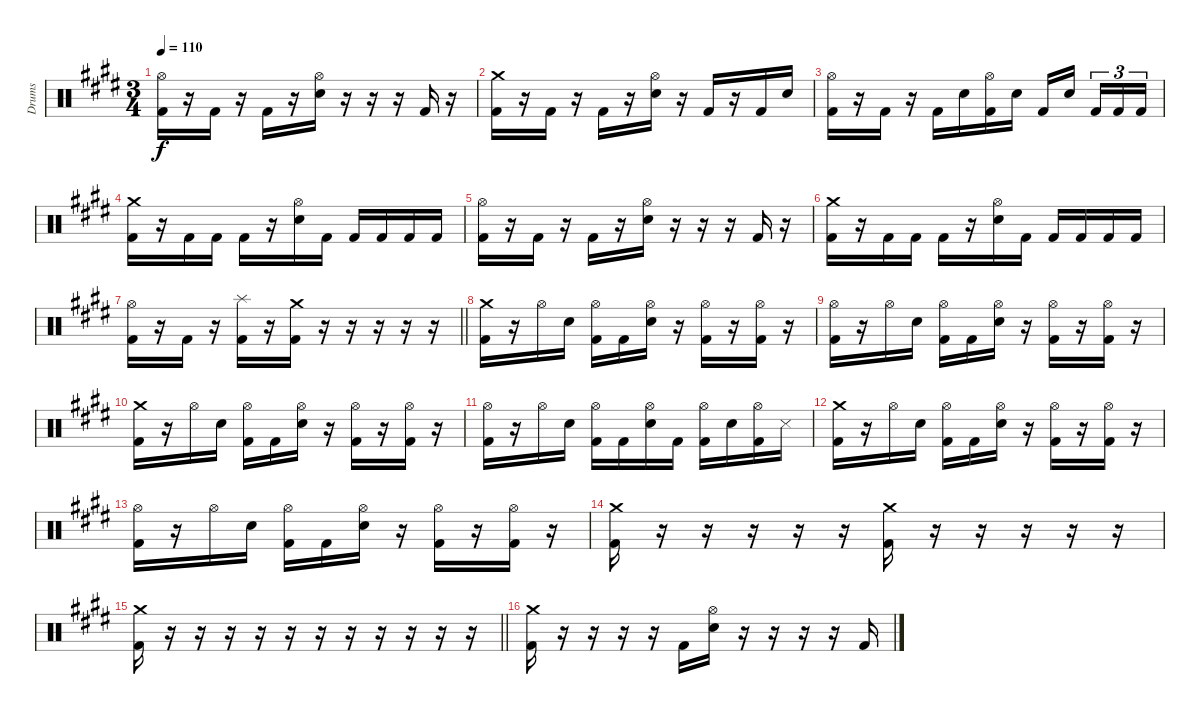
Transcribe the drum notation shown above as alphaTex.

\track ("Drums" "Drums") {instrument percussion}
\staff {score}
\articulation defaults
\ts (3 4)
\tempo 110
\clef neutral
\ks c#minor
("Kick (hit) 2" "Hi-Hat (open)").16{dy f} r.16 "Kick (hit) 2".16 r.16 "Kick (hit) 2".16 r.16 ("Electric Snare (hit)" "Hi-Hat (open)").16 r.16 r.16 r.16 "Kick (hit) 2".16 r.16 |
("Kick (hit) 2" "Crash medium (hit)").16 r.16 "Kick (hit) 2".16 r.16 "Kick (hit) 2".16 r.16 ("Electric Snare (hit)" "Hi-Hat (open)").16 r.16 "Kick (hit) 2".16 r.16 "Kick (hit) 2".16 "Electric Snare (hit)".16 |
("Kick (hit) 2" "Hi-Hat (open)").16 r.16 "Kick (hit) 2".16 r.16 "Kick (hit) 2".16 "Electric Snare (hit)".16 ("Kick (hit) 2" "Hi-Hat (open)").16 "Electric Snare (hit)".16 "Kick (hit) 2".16 "Electric Snare (hit)".16{beam splitsecondary} "Kick (hit) 2".16{tu (3 2)} "Kick (hit) 2".16{tu (3 2)} "Kick (hit) 2".16{tu (3 2)} |
("Kick (hit) 2" "Crash medium (hit)").16 r.16 "Kick (hit) 2".16 "Kick (hit) 2".16 "Kick (hit) 2".16 r.16 ("Electric Snare (hit)" "Hi-Hat (open)").16 "Kick (hit) 2".16 "Kick (hit) 2".16 "Kick (hit) 2".16 "Kick (hit) 2".16 "Kick (hit) 2".16 |
("Kick (hit) 2" "Hi-Hat (open)").16 r.16 "Kick (hit) 2".16 r.16 "Kick (hit) 2".16 r.16 ("Electric Snare (hit)" "Hi-Hat (open)").16 r.16 r.16 r.16 "Kick (hit) 2".16 r.16 |
("Kick (hit) 2" "Crash medium (hit)").16 r.16 "Kick (hit) 2".16 "Kick (hit) 2".16 "Kick (hit) 2".16 r.16 ("Electric Snare (hit)" "Hi-Hat (open)").16 "Kick (hit) 2".16 "Kick (hit) 2".16 "Kick (hit) 2".16 "Kick (hit) 2".16 "Kick (hit) 2".16 |
\barLineRight lightlight
("Kick (hit) 2" "Hi-Hat (open)").16 r.16 "Kick (hit) 2".16 r.16 ("Kick (hit) 2" "Splash (hit)").16 r.16 ("Kick (hit) 2" "Crash medium (hit)").16 r.16 r.16 r.16 r.16 r.16 |
("Kick (hit) 2" "Crash medium (hit)").16 r.16 "Hi-Hat (open)".16 "Electric Snare (hit)".16 ("Kick (hit) 2" "Hi-Hat (open)").16 "Kick (hit) 2".16 ("Electric Snare (hit)" "Hi-Hat (open)").16 r.16 ("Kick (hit) 2" "Hi-Hat (open)").16 r.16 ("Kick (hit) 2" "Hi-Hat (open)").16 r.16 |
("Kick (hit) 2" "Hi-Hat (open)").16 r.16 "Hi-Hat (open)".16 "Electric Snare (hit)".16 ("Kick (hit) 2" "Hi-Hat (open)").16 "Kick (hit) 2".16 ("Electric Snare (hit)" "Hi-Hat (open)").16 r.16 ("Kick (hit) 2" "Hi-Hat (open)").16 r.16 ("Kick (hit) 2" "Hi-Hat (open)").16 r.16 |
("Kick (hit) 2" "Crash medium (hit)").16 r.16 "Hi-Hat (open)".16 "Electric Snare (hit)".16 ("Kick (hit) 2" "Hi-Hat (open)").16 "Kick (hit) 2".16 ("Electric Snare (hit)" "Hi-Hat (open)").16 r.16 ("Kick (hit) 2" "Hi-Hat (open)").16 r.16 ("Kick (hit) 2" "Hi-Hat (open)").16 r.16 |
("Kick (hit) 2" "Hi-Hat (open)").16 r.16 "Hi-Hat (open)".16 "Electric Snare (hit)".16 ("Kick (hit) 2" "Hi-Hat (open)").16 "Kick (hit) 2".16 ("Electric Snare (hit)" "Hi-Hat (open)").16 "Kick (hit) 2".16 ("Kick (hit) 2" "Hi-Hat (open)").16 "Electric Snare (hit)".16 ("Kick (hit) 2" "Hi-Hat (open)").16 "Metronome (hit)".16 |
("Kick (hit) 2" "Crash medium (hit)").16 r.16 "Hi-Hat (open)".16 "Electric Snare (hit)".16 ("Kick (hit) 2" "Hi-Hat (open)").16 "Kick (hit) 2".16 ("Electric Snare (hit)" "Hi-Hat (open)").16 r.16 ("Kick (hit) 2" "Hi-Hat (open)").16 r.16 ("Kick (hit) 2" "Hi-Hat (open)").16 r.16 |
("Kick (hit) 2" "Hi-Hat (open)").16 r.16 "Hi-Hat (open)".16 "Electric Snare (hit)".16 ("Kick (hit) 2" "Hi-Hat (open)").16 "Kick (hit) 2".16 ("Electric Snare (hit)" "Hi-Hat (open)").16 r.16 ("Kick (hit) 2" "Hi-Hat (open)").16 r.16 ("Kick (hit) 2" "Hi-Hat (open)").16 r.16 |
("Kick (hit) 2" "Crash medium (hit)").16 r.16 r.16 r.16 r.16 r.16 ("Kick (hit) 2" "Crash medium (hit)").16 r.16 r.16 r.16 r.16 r.16 |
\barLineRight lightlight
("Kick (hit) 2" "Crash medium (hit)").16 r.16 r.16 r.16 r.16 r.16 r.16 r.16 r.16 r.16 r.16 r.16 |
("Kick (hit) 2" "Crash medium (hit)").16 r.16 r.16 r.16 r.16 "Kick (hit) 2".16 ("Electric Snare (hit)" "Hi-Hat (open)").16 r.16 r.16 r.16 r.16 "Kick (hit) 2".16
